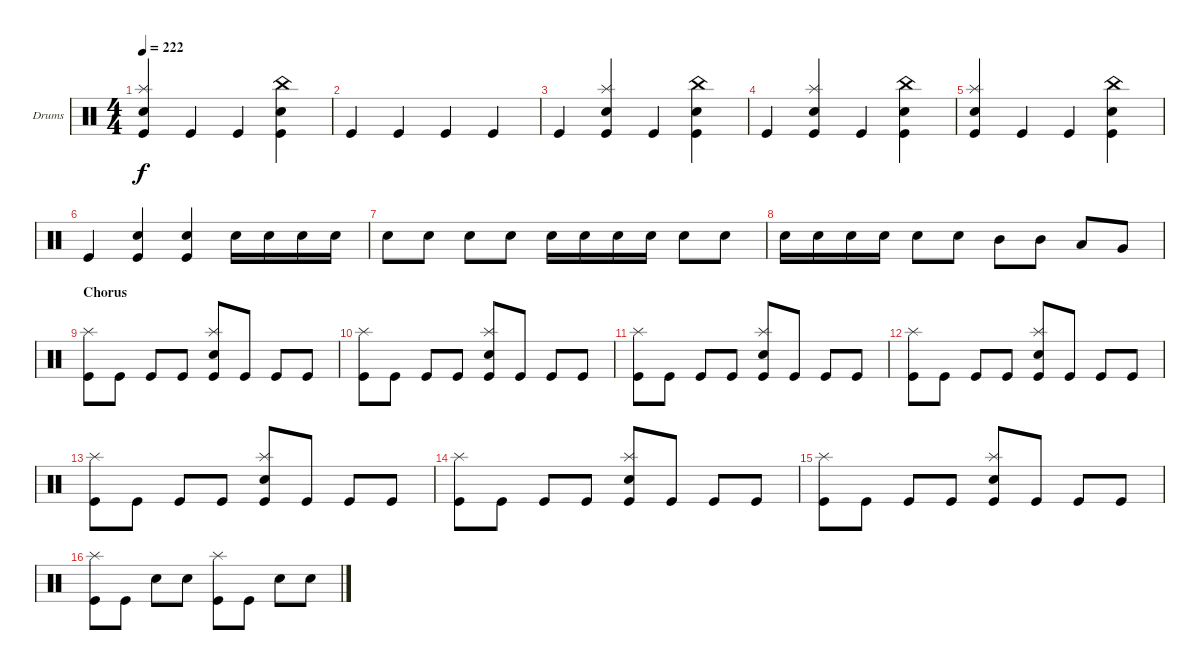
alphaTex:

\defaultSystemsLayout 4
\bracketExtendMode groupsimilarinstruments
\firstSystemTrackNameOrientation horizontal
\otherSystemsTrackNameOrientation horizontal
\track ("Drumkit" "Drums") {mute instrument percussion}
\staff {score}
\articulation defaults
\ts (4 4)
\tempo 222
\clef neutral
\ks c
("Kick (hit)" "Splash (hit)" "Snare (hit) 2").4{dy f} "Kick (hit)".4 "Kick (hit)".4 ("Kick (hit)" "Snare (hit) 2" "China (hit)").4 |
"Kick (hit)".4 "Kick (hit)".4 "Kick (hit)".4 "Kick (hit)".4 |
"Kick (hit)".4 ("Kick (hit)" "Snare (hit) 2" "Splash (hit)").4 "Kick (hit)".4 ("Kick (hit)" "China (hit)" "Snare (hit) 2").4 |
"Kick (hit)".4 ("Kick (hit)" "Snare (hit) 2" "Splash (hit)").4 "Kick (hit)".4 ("Kick (hit)" "China (hit)" "Snare (hit) 2").4 |
("Kick (hit)" "Splash (hit)" "Snare (hit) 2").4 "Kick (hit)".4 "Kick (hit)".4 ("Kick (hit)" "Snare (hit) 2" "China (hit)").4 |
"Kick (hit)".4 ("Kick (hit)" "Snare (hit) 2").4 ("Kick (hit)" "Snare (hit) 2").4 "Snare (hit) 2".16 "Snare (hit) 2".16 "Snare (hit) 2".16 "Snare (hit) 2".16 |
"Snare (hit) 2".8 "Snare (hit) 2".8 "Snare (hit) 2".8 "Snare (hit) 2".8 "Snare (hit) 2".16 "Snare (hit) 2".16 "Snare (hit) 2".16 "Snare (hit) 2".16 "Snare (hit) 2".8 "Snare (hit) 2".8 |
"Snare (hit) 2".16 "Snare (hit) 2".16 "Snare (hit) 2".16 "Snare (hit) 2".16 "Snare (hit) 2".8 "Snare (hit) 2".8 "Mid Tom (hit)".8 "Mid Tom (hit)".8 "Low Tom (hit)".8 "Very Low Tom (hit)".8 |
\section ("" "Chorus")
("Kick (hit)" "Splash (hit)").8 "Kick (hit)".8 "Kick (hit)".8 "Kick (hit)".8 ("Kick (hit)" "Splash (hit)" "Snare (hit) 2").8 "Kick (hit)".8 "Kick (hit)".8 "Kick (hit)".8 |
("Kick (hit)" "Splash (hit)").8 "Kick (hit)".8 "Kick (hit)".8 "Kick (hit)".8 ("Kick (hit)" "Splash (hit)" "Snare (hit) 2").8 "Kick (hit)".8 "Kick (hit)".8 "Kick (hit)".8 |
("Kick (hit)" "Splash (hit)").8 "Kick (hit)".8 "Kick (hit)".8 "Kick (hit)".8 ("Kick (hit)" "Splash (hit)" "Snare (hit) 2").8 "Kick (hit)".8 "Kick (hit)".8 "Kick (hit)".8 |
("Kick (hit)" "Splash (hit)").8 "Kick (hit)".8 "Kick (hit)".8 "Kick (hit)".8 ("Kick (hit)" "Splash (hit)" "Snare (hit) 2").8 "Kick (hit)".8 "Kick (hit)".8 "Kick (hit)".8 |
("Kick (hit)" "Splash (hit)").8 "Kick (hit)".8 "Kick (hit)".8 "Kick (hit)".8 ("Kick (hit)" "Splash (hit)" "Snare (hit) 2").8 "Kick (hit)".8 "Kick (hit)".8 "Kick (hit)".8 |
("Kick (hit)" "Splash (hit)").8 "Kick (hit)".8 "Kick (hit)".8 "Kick (hit)".8 ("Kick (hit)" "Splash (hit)" "Snare (hit) 2").8 "Kick (hit)".8 "Kick (hit)".8 "Kick (hit)".8 |
("Kick (hit)" "Splash (hit)").8 "Kick (hit)".8 "Kick (hit)".8 "Kick (hit)".8 ("Kick (hit)" "Splash (hit)" "Snare (hit) 2").8 "Kick (hit)".8 "Kick (hit)".8 "Kick (hit)".8 |
("Kick (hit)" "Splash (hit)").8 "Kick (hit)".8 "Snare (hit) 2".8 "Snare (hit) 2".8 ("Kick (hit)" "Splash (hit)").8 "Kick (hit)".8 "Snare (hit) 2".8 "Snare (hit) 2".8
